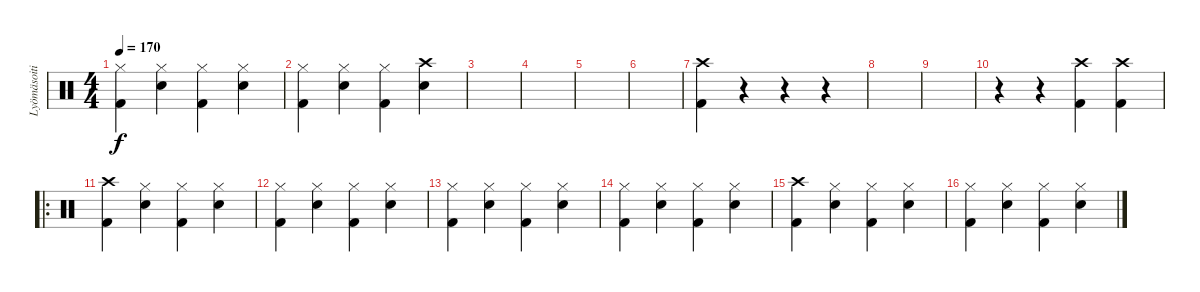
\track ("Lyömäsoitin" "Lyömäsoiti") {instrument percussion}
\staff {score}
\articulation defaults
\ts (4 4)
\tempo 170
\clef neutral
\ks c
("Hi-Hat (closed)" "Kick (hit) 2").4{dy f} ("Hi-Hat (closed)" "Snare (hit) 2").4 ("Hi-Hat (closed)" "Kick (hit) 2").4 ("Hi-Hat (closed)" "Snare (hit) 2").4 |
("Hi-Hat (closed)" "Kick (hit) 2").4 ("Hi-Hat (closed)" "Snare (hit) 2").4 ("Hi-Hat (closed)" "Kick (hit) 2").4 ("Crash high (hit)" "Snare (hit) 2").4 |
|
|
|
|
("Crash high (hit)" "Kick (hit) 2").4 r.4 r.4 r.4 |
|
|
r.4 r.4 ("Crash high (hit)" "Kick (hit) 2").4 ("Crash high (hit)" "Kick (hit) 2").4 |
\ro
("Crash high (hit)" "Kick (hit) 2").4 ("Hi-Hat (closed)" "Snare (hit) 2").4 ("Hi-Hat (closed)" "Kick (hit) 2").4 ("Hi-Hat (closed)" "Snare (hit) 2").4 |
("Hi-Hat (closed)" "Kick (hit) 2").4 ("Hi-Hat (closed)" "Snare (hit) 2").4 ("Hi-Hat (closed)" "Kick (hit) 2").4 ("Hi-Hat (closed)" "Snare (hit) 2").4 |
("Hi-Hat (closed)" "Kick (hit) 2").4 ("Hi-Hat (closed)" "Snare (hit) 2").4 ("Hi-Hat (closed)" "Kick (hit) 2").4 ("Hi-Hat (closed)" "Snare (hit) 2").4 |
("Hi-Hat (closed)" "Kick (hit) 2").4 ("Hi-Hat (closed)" "Snare (hit) 2").4 ("Hi-Hat (closed)" "Kick (hit) 2").4 ("Hi-Hat (closed)" "Snare (hit) 2").4 |
("Crash high (hit)" "Kick (hit) 2").4 ("Hi-Hat (closed)" "Snare (hit) 2").4 ("Hi-Hat (closed)" "Kick (hit) 2").4 ("Hi-Hat (closed)" "Snare (hit) 2").4 |
("Hi-Hat (closed)" "Kick (hit) 2").4 ("Hi-Hat (closed)" "Snare (hit) 2").4 ("Hi-Hat (closed)" "Kick (hit) 2").4 ("Hi-Hat (closed)" "Snare (hit) 2").4
